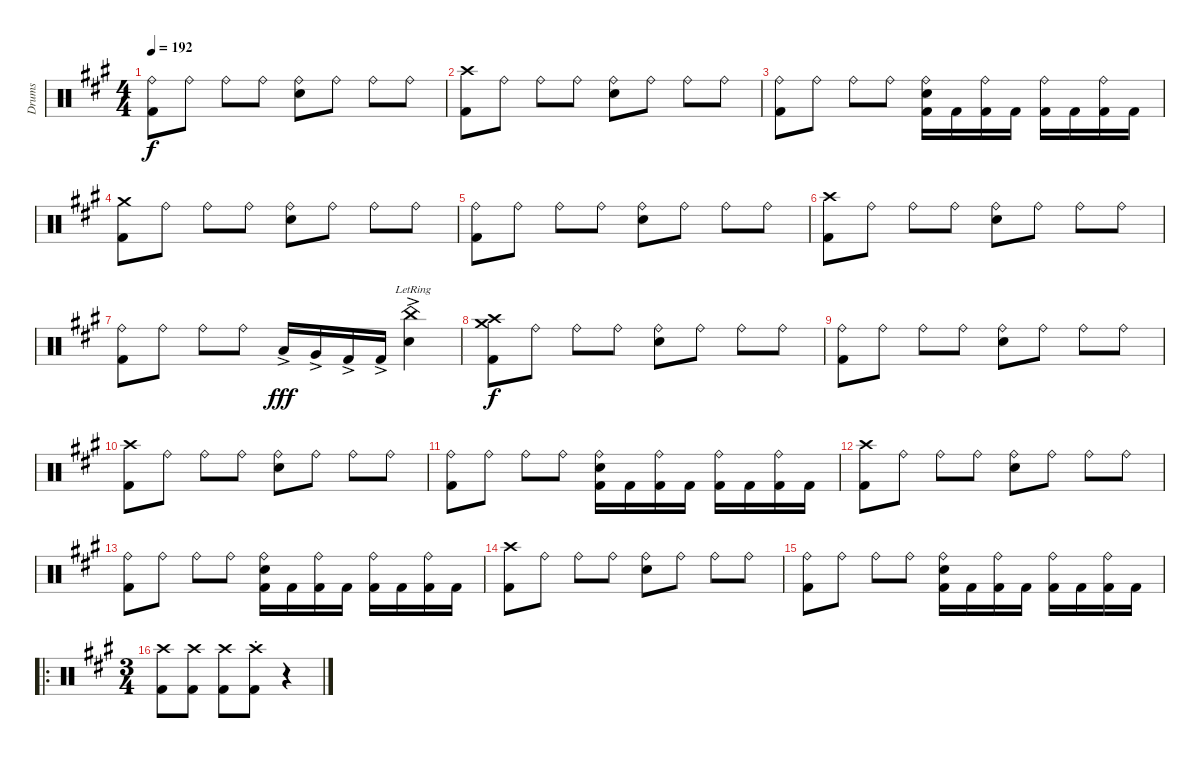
\track ("Drums" "Drums") {instrument percussion}
\staff {score}
\articulation defaults
\ts (4 4)
\tempo 192
\clef neutral
\ks f#minor
("Ride (bell)" "Kick (hit) 2").8{dy f} "Ride (bell)".8 "Ride (bell)".8 "Ride (bell)".8 ("Ride (bell)" "Snare (hit) 2").8 "Ride (bell)".8 "Ride (bell)".8 "Ride (bell)".8 |
("Crash high (hit)" "Kick (hit) 2").8 "Ride (bell)".8 "Ride (bell)".8 "Ride (bell)".8 ("Ride (bell)" "Snare (hit) 2").8 "Ride (bell)".8 "Ride (bell)".8 "Ride (bell)".8 |
("Ride (bell)" "Kick (hit) 2").8 "Ride (bell)".8 "Ride (bell)".8 "Ride (bell)".8 ("Ride (bell)" "Snare (hit) 2" "Kick (hit) 2").16 "Kick (hit) 2".16 ("Ride (bell)" "Kick (hit) 2").16 "Kick (hit) 2".16 ("Ride (bell)" "Kick (hit) 2").16 "Kick (hit) 2".16 ("Ride (bell)" "Kick (hit) 2").16 "Kick (hit) 2".16 |
("Crash medium (hit)" "Kick (hit) 2").8 "Ride (bell)".8 "Ride (bell)".8 "Ride (bell)".8 ("Ride (bell)" "Snare (hit) 2").8 "Ride (bell)".8 "Ride (bell)".8 "Ride (bell)".8 |
("Ride (bell)" "Kick (hit) 2").8 "Ride (bell)".8 "Ride (bell)".8 "Ride (bell)".8 ("Ride (bell)" "Snare (hit) 2").8 "Ride (bell)".8 "Ride (bell)".8 "Ride (bell)".8 |
("Crash high (hit)" "Kick (hit) 2").8 "Ride (bell)".8 "Ride (bell)".8 "Ride (bell)".8 ("Ride (bell)" "Snare (hit) 2").8 "Ride (bell)".8 "Ride (bell)".8 "Ride (bell)".8 |
("Ride (bell)" "Kick (hit) 2").8 "Ride (bell)".8 "Ride (bell)".8 "Ride (bell)".8 "Low Tom (hit)"{ac}.16{dy fff} "Very Low Tom (hit)"{ac}.16 "Kick (hit) 2"{ac}.16 "Kick (hit) 2"{ac}.16 ("China (hit)"{ac lr} "Snare (hit) 2"{ac lr}).4 |
("Crash high (hit)" "Crash medium (hit)" "Kick (hit) 2").8{dy f} "Ride (bell)".8 "Ride (bell)".8 "Ride (bell)".8 ("Ride (bell)" "Snare (hit) 2").8 "Ride (bell)".8 "Ride (bell)".8 "Ride (bell)".8 |
("Ride (bell)" "Kick (hit) 2").8 "Ride (bell)".8 "Ride (bell)".8 "Ride (bell)".8 ("Ride (bell)" "Snare (hit) 2").8 "Ride (bell)".8 "Ride (bell)".8 "Ride (bell)".8 |
("Crash high (hit)" "Kick (hit) 2").8 "Ride (bell)".8 "Ride (bell)".8 "Ride (bell)".8 ("Ride (bell)" "Snare (hit) 2").8 "Ride (bell)".8 "Ride (bell)".8 "Ride (bell)".8 |
("Ride (bell)" "Kick (hit) 2").8 "Ride (bell)".8 "Ride (bell)".8 "Ride (bell)".8 ("Ride (bell)" "Snare (hit) 2" "Kick (hit) 2").16 "Kick (hit) 2".16 ("Ride (bell)" "Kick (hit) 2").16 "Kick (hit) 2".16 ("Ride (bell)" "Kick (hit) 2").16 "Kick (hit) 2".16 ("Ride (bell)" "Kick (hit) 2").16 "Kick (hit) 2".16 |
("Crash high (hit)" "Kick (hit) 2").8 "Ride (bell)".8 "Ride (bell)".8 "Ride (bell)".8 ("Ride (bell)" "Snare (hit) 2").8 "Ride (bell)".8 "Ride (bell)".8 "Ride (bell)".8 |
("Ride (bell)" "Kick (hit) 2").8 "Ride (bell)".8 "Ride (bell)".8 "Ride (bell)".8 ("Ride (bell)" "Snare (hit) 2" "Kick (hit) 2").16 "Kick (hit) 2".16 ("Ride (bell)" "Kick (hit) 2").16 "Kick (hit) 2".16 ("Ride (bell)" "Kick (hit) 2").16 "Kick (hit) 2".16 ("Ride (bell)" "Kick (hit) 2").16 "Kick (hit) 2".16 |
("Crash high (hit)" "Kick (hit) 2").8 "Ride (bell)".8 "Ride (bell)".8 "Ride (bell)".8 ("Ride (bell)" "Snare (hit) 2").8 "Ride (bell)".8 "Ride (bell)".8 "Ride (bell)".8 |
("Ride (bell)" "Kick (hit) 2").8 "Ride (bell)".8 "Ride (bell)".8 "Ride (bell)".8 ("Ride (bell)" "Snare (hit) 2" "Kick (hit) 2").16 "Kick (hit) 2".16 ("Ride (bell)" "Kick (hit) 2").16 "Kick (hit) 2".16 ("Ride (bell)" "Kick (hit) 2").16 "Kick (hit) 2".16 ("Ride (bell)" "Kick (hit) 2").16 "Kick (hit) 2".16 |
\ro
\ts (3 4)
("Crash high (hit)" "Kick (hit) 2").8 ("Crash high (hit)" "Kick (hit) 2").8 ("Crash high (hit)" "Kick (hit) 2").8 ("Crash high (hit)"{st} "Kick (hit) 2").8 r.4
